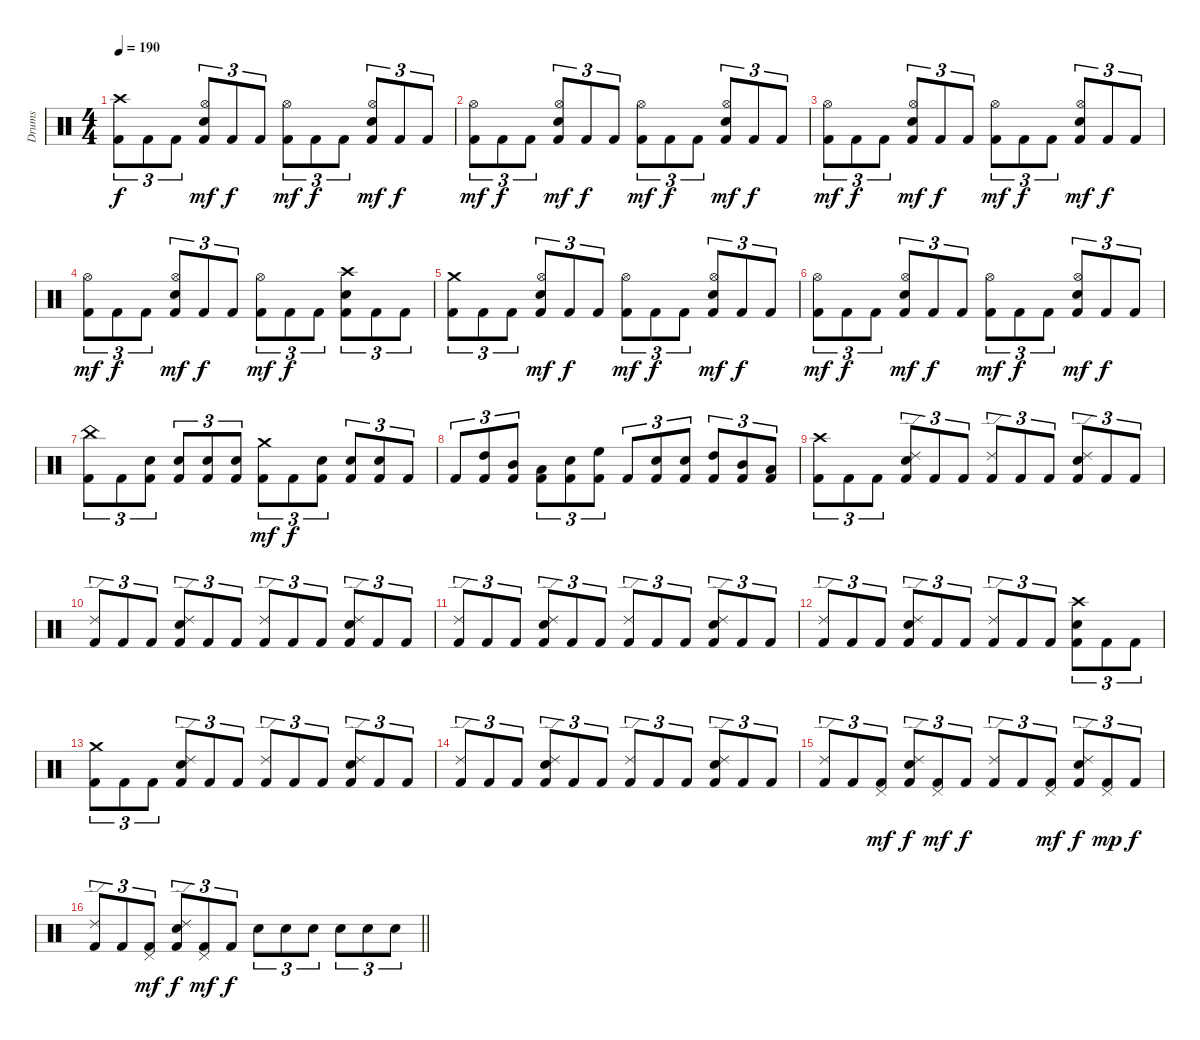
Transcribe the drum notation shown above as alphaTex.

\track ("Drums" "Drums") {instrument percussion}
\staff {score}
\articulation defaults
\ts (4 4)
\tempo 190
\clef neutral
\ks c
("Crash high (hit)" "Kick (hit) 2").8{tu (3 2) dy f} "Kick (hit) 2".8{tu (3 2)} "Kick (hit) 2".8{tu (3 2)} ("Hi-Hat (open)" "Electric Snare (hit)" "Kick (hit) 2").8{tu (3 2) dy mf} "Kick (hit) 2".8{tu (3 2) dy f} "Kick (hit) 2".8{tu (3 2)} ("Hi-Hat (open)" "Kick (hit) 2").8{tu (3 2) dy mf} "Kick (hit) 2".8{tu (3 2) dy f} "Kick (hit) 2".8{tu (3 2)} ("Hi-Hat (open)" "Electric Snare (hit)" "Kick (hit) 2").8{tu (3 2) dy mf} "Kick (hit) 2".8{tu (3 2) dy f} "Kick (hit) 2".8{tu (3 2)} |
("Hi-Hat (open)" "Kick (hit) 2").8{tu (3 2) dy mf} "Kick (hit) 2".8{tu (3 2) dy f} "Kick (hit) 2".8{tu (3 2)} ("Hi-Hat (open)" "Electric Snare (hit)" "Kick (hit) 2").8{tu (3 2) dy mf} "Kick (hit) 2".8{tu (3 2) dy f} "Kick (hit) 2".8{tu (3 2)} ("Hi-Hat (open)" "Kick (hit) 2").8{tu (3 2) dy mf} "Kick (hit) 2".8{tu (3 2) dy f} "Kick (hit) 2".8{tu (3 2)} ("Hi-Hat (open)" "Electric Snare (hit)" "Kick (hit) 2").8{tu (3 2) dy mf} "Kick (hit) 2".8{tu (3 2) dy f} "Kick (hit) 2".8{tu (3 2)} |
("Hi-Hat (open)" "Kick (hit) 2").8{tu (3 2) dy mf} "Kick (hit) 2".8{tu (3 2) dy f} "Kick (hit) 2".8{tu (3 2)} ("Hi-Hat (open)" "Electric Snare (hit)" "Kick (hit) 2").8{tu (3 2) dy mf} "Kick (hit) 2".8{tu (3 2) dy f} "Kick (hit) 2".8{tu (3 2)} ("Hi-Hat (open)" "Kick (hit) 2").8{tu (3 2) dy mf} "Kick (hit) 2".8{tu (3 2) dy f} "Kick (hit) 2".8{tu (3 2)} ("Hi-Hat (open)" "Electric Snare (hit)" "Kick (hit) 2").8{tu (3 2) dy mf} "Kick (hit) 2".8{tu (3 2) dy f} "Kick (hit) 2".8{tu (3 2)} |
("Hi-Hat (open)" "Kick (hit) 2").8{tu (3 2) dy mf} "Kick (hit) 2".8{tu (3 2) dy f} "Kick (hit) 2".8{tu (3 2)} ("Hi-Hat (open)" "Electric Snare (hit)" "Kick (hit) 2").8{tu (3 2) dy mf} "Kick (hit) 2".8{tu (3 2) dy f} "Kick (hit) 2".8{tu (3 2)} ("Hi-Hat (open)" "Kick (hit) 2").8{tu (3 2) dy mf} "Kick (hit) 2".8{tu (3 2) dy f} "Kick (hit) 2".8{tu (3 2)} ("Crash high (hit)" "Electric Snare (hit)" "Kick (hit) 2").8{tu (3 2)} "Kick (hit) 2".8{tu (3 2)} "Kick (hit) 2".8{tu (3 2)} |
("Crash medium (hit)" "Kick (hit) 2").8{tu (3 2)} "Kick (hit) 2".8{tu (3 2)} "Kick (hit) 2".8{tu (3 2)} ("Hi-Hat (open)" "Electric Snare (hit)" "Kick (hit) 2").8{tu (3 2) dy mf} "Kick (hit) 2".8{tu (3 2) dy f} "Kick (hit) 2".8{tu (3 2)} ("Hi-Hat (open)" "Kick (hit) 2").8{tu (3 2) dy mf} "Kick (hit) 2".8{tu (3 2) dy f} "Kick (hit) 2".8{tu (3 2)} ("Hi-Hat (open)" "Electric Snare (hit)" "Kick (hit) 2").8{tu (3 2) dy mf} "Kick (hit) 2".8{tu (3 2) dy f} "Kick (hit) 2".8{tu (3 2)} |
("Hi-Hat (open)" "Kick (hit) 2").8{tu (3 2) dy mf} "Kick (hit) 2".8{tu (3 2) dy f} "Kick (hit) 2".8{tu (3 2)} ("Hi-Hat (open)" "Electric Snare (hit)" "Kick (hit) 2").8{tu (3 2) dy mf} "Kick (hit) 2".8{tu (3 2) dy f} "Kick (hit) 2".8{tu (3 2)} ("Hi-Hat (open)" "Kick (hit) 2").8{tu (3 2) dy mf} "Kick (hit) 2".8{tu (3 2) dy f} "Kick (hit) 2".8{tu (3 2)} ("Hi-Hat (open)" "Electric Snare (hit)" "Kick (hit) 2").8{tu (3 2) dy mf} "Kick (hit) 2".8{tu (3 2) dy f} "Kick (hit) 2".8{tu (3 2)} |
("China (hit)" "Kick (hit) 2").8{tu (3 2)} "Kick (hit) 2".8{tu (3 2)} ("Electric Snare (hit)" "Kick (hit) 2").8{tu (3 2)} ("Electric Snare (hit)" "Kick (hit) 2").8{tu (3 2)} ("Electric Snare (hit)" "Kick (hit) 2").8{tu (3 2)} ("Electric Snare (hit)" "Kick (hit) 2").8{tu (3 2)} ("Crash medium (hit)" "Kick (hit) 2").8{tu (3 2) dy mf} "Kick (hit) 2".8{tu (3 2) dy f} ("Electric Snare (hit)" "Kick (hit) 2").8{tu (3 2)} ("Electric Snare (hit)" "Kick (hit) 2").8{tu (3 2)} ("Electric Snare (hit)" "Kick (hit) 2").8{tu (3 2)} "Kick (hit) 2".8{tu (3 2)} |
"Kick (hit) 2".8{tu (3 2)} ("High Tom (hit)" "Kick (hit) 2").8{tu (3 2)} ("Mid Tom (hit)" "Kick (hit) 2").8{tu (3 2)} ("Low Tom (hit)" "Kick (hit) 2").8{tu (3 2)} ("Electric Snare (hit)" "Kick (hit) 2").8{tu (3 2)} ("High Floor Tom (hit)" "Kick (hit) 2").8{tu (3 2)} "Kick (hit) 2".8{tu (3 2)} ("Electric Snare (hit)" "Kick (hit) 2").8{tu (3 2)} ("Electric Snare (hit)" "Kick (hit) 2").8{tu (3 2)} ("High Tom (hit)" "Kick (hit) 2").8{tu (3 2)} ("Mid Tom (hit)" "Kick (hit) 2").8{tu (3 2)} ("Low Tom (hit)" "Kick (hit) 2").8{tu (3 2)} |
("Crash high (hit)" "Kick (hit) 2").8{tu (3 2)} "Kick (hit) 2".8{tu (3 2)} "Kick (hit) 2".8{tu (3 2)} ("Ride (edge) 2" "Electric Snare (hit)" "Kick (hit) 2").8{tu (3 2)} "Kick (hit) 2".8{tu (3 2)} "Kick (hit) 2".8{tu (3 2)} ("Ride (edge) 2" "Kick (hit) 2").8{tu (3 2)} "Kick (hit) 2".8{tu (3 2)} "Kick (hit) 2".8{tu (3 2)} ("Ride (edge) 2" "Electric Snare (hit)" "Kick (hit) 2").8{tu (3 2)} "Kick (hit) 2".8{tu (3 2)} "Kick (hit) 2".8{tu (3 2)} |
("Ride (edge) 2" "Kick (hit) 2").8{tu (3 2)} "Kick (hit) 2".8{tu (3 2)} "Kick (hit) 2".8{tu (3 2)} ("Ride (edge) 2" "Electric Snare (hit)" "Kick (hit) 2").8{tu (3 2)} "Kick (hit) 2".8{tu (3 2)} "Kick (hit) 2".8{tu (3 2)} ("Ride (edge) 2" "Kick (hit) 2").8{tu (3 2)} "Kick (hit) 2".8{tu (3 2)} "Kick (hit) 2".8{tu (3 2)} ("Ride (edge) 2" "Electric Snare (hit)" "Kick (hit) 2").8{tu (3 2)} "Kick (hit) 2".8{tu (3 2)} "Kick (hit) 2".8{tu (3 2)} |
("Ride (edge) 2" "Kick (hit) 2").8{tu (3 2)} "Kick (hit) 2".8{tu (3 2)} "Kick (hit) 2".8{tu (3 2)} ("Ride (edge) 2" "Electric Snare (hit)" "Kick (hit) 2").8{tu (3 2)} "Kick (hit) 2".8{tu (3 2)} "Kick (hit) 2".8{tu (3 2)} ("Ride (edge) 2" "Kick (hit) 2").8{tu (3 2)} "Kick (hit) 2".8{tu (3 2)} "Kick (hit) 2".8{tu (3 2)} ("Ride (edge) 2" "Electric Snare (hit)" "Kick (hit) 2").8{tu (3 2)} "Kick (hit) 2".8{tu (3 2)} "Kick (hit) 2".8{tu (3 2)} |
("Ride (edge) 2" "Kick (hit) 2").8{tu (3 2)} "Kick (hit) 2".8{tu (3 2)} "Kick (hit) 2".8{tu (3 2)} ("Ride (edge) 2" "Electric Snare (hit)" "Kick (hit) 2").8{tu (3 2)} "Kick (hit) 2".8{tu (3 2)} "Kick (hit) 2".8{tu (3 2)} ("Ride (edge) 2" "Kick (hit) 2").8{tu (3 2)} "Kick (hit) 2".8{tu (3 2)} "Kick (hit) 2".8{tu (3 2)} ("Crash high (hit)" "Electric Snare (hit)" "Kick (hit) 2").8{tu (3 2)} "Kick (hit) 2".8{tu (3 2)} "Kick (hit) 2".8{tu (3 2)} |
("Crash medium (hit)" "Kick (hit) 2").8{tu (3 2)} "Kick (hit) 2".8{tu (3 2)} "Kick (hit) 2".8{tu (3 2)} ("Ride (edge) 2" "Electric Snare (hit)" "Kick (hit) 2").8{tu (3 2)} "Kick (hit) 2".8{tu (3 2)} "Kick (hit) 2".8{tu (3 2)} ("Ride (edge) 2" "Kick (hit) 2").8{tu (3 2)} "Kick (hit) 2".8{tu (3 2)} "Kick (hit) 2".8{tu (3 2)} ("Ride (edge) 2" "Electric Snare (hit)" "Kick (hit) 2").8{tu (3 2)} "Kick (hit) 2".8{tu (3 2)} "Kick (hit) 2".8{tu (3 2)} |
("Ride (edge) 2" "Kick (hit) 2").8{tu (3 2)} "Kick (hit) 2".8{tu (3 2)} "Kick (hit) 2".8{tu (3 2)} ("Ride (edge) 2" "Electric Snare (hit)" "Kick (hit) 2").8{tu (3 2)} "Kick (hit) 2".8{tu (3 2)} "Kick (hit) 2".8{tu (3 2)} ("Ride (edge) 2" "Kick (hit) 2").8{tu (3 2)} "Kick (hit) 2".8{tu (3 2)} "Kick (hit) 2".8{tu (3 2)} ("Ride (edge) 2" "Electric Snare (hit)" "Kick (hit) 2").8{tu (3 2)} "Kick (hit) 2".8{tu (3 2)} "Kick (hit) 2".8{tu (3 2)} |
("Ride (edge) 2" "Kick (hit) 2").8{tu (3 2)} "Kick (hit) 2".8{tu (3 2)} ("Pedal Hi-Hat (hit)" "Kick (hit) 2").8{tu (3 2) dy mf} ("Ride (edge) 2" "Electric Snare (hit)" "Kick (hit) 2").8{tu (3 2) dy f} ("Pedal Hi-Hat (hit)" "Kick (hit) 2").8{tu (3 2) dy mf} "Kick (hit) 2".8{tu (3 2) dy f} ("Ride (edge) 2" "Kick (hit) 2").8{tu (3 2)} "Kick (hit) 2".8{tu (3 2)} ("Pedal Hi-Hat (hit)" "Kick (hit) 2").8{tu (3 2) dy mf} ("Ride (edge) 2" "Electric Snare (hit)" "Kick (hit) 2").8{tu (3 2) dy f} ("Pedal Hi-Hat (hit)" "Kick (hit) 2").8{tu (3 2) dy mp} "Kick (hit) 2".8{tu (3 2) dy f} |
\barLineRight lightlight
("Ride (edge) 2" "Kick (hit) 2").8{tu (3 2)} "Kick (hit) 2".8{tu (3 2)} ("Pedal Hi-Hat (hit)" "Kick (hit) 2").8{tu (3 2) dy mf} ("Ride (edge) 2" "Electric Snare (hit)" "Kick (hit) 2").8{tu (3 2) dy f} ("Pedal Hi-Hat (hit)" "Kick (hit) 2").8{tu (3 2) dy mf} "Kick (hit) 2".8{tu (3 2) dy f} "Electric Snare (hit)".8{tu (3 2)} "Electric Snare (hit)".8{tu (3 2)} "Electric Snare (hit)".8{tu (3 2)} "Electric Snare (hit)".8{tu (3 2)} "Electric Snare (hit)".8{tu (3 2)} "Electric Snare (hit)".8{tu (3 2)}
